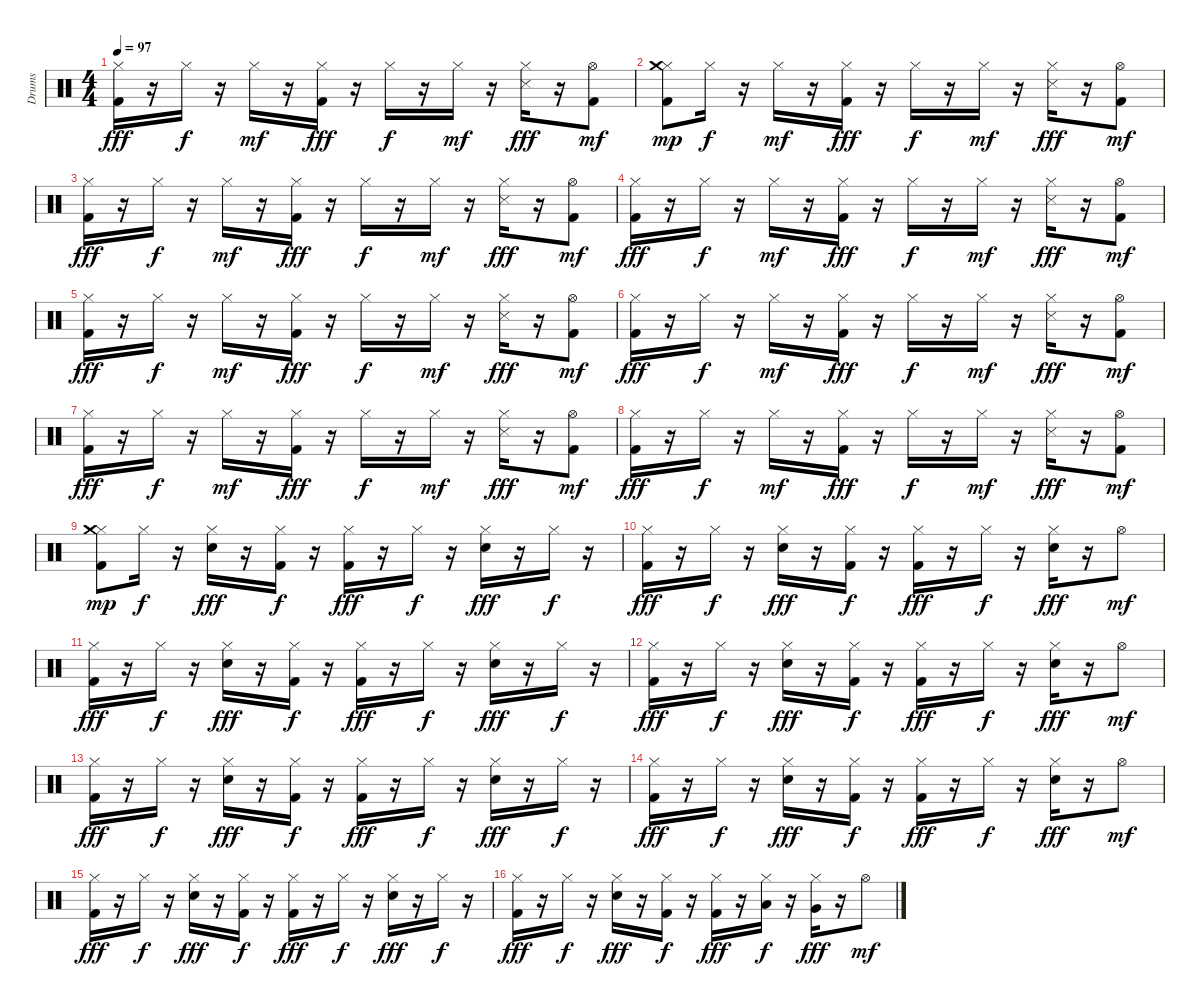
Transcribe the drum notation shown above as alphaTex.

\track ("Drums" "Drums") {instrument percussion}
\staff {score}
\articulation defaults
\ts (4 4)
\tempo 97
\clef neutral
\ks c
("Kick (hit) 2" "Hi-Hat (closed)").16{dy fff} r.16 "Hi-Hat (closed)".16{dy f} r.16 "Hi-Hat (closed)".16{dy mf} r.16 ("Kick (hit) 2" "Hi-Hat (closed)").16{dy fff} r.16 "Hi-Hat (closed)".16{dy f} r.16 "Hi-Hat (closed)".16{dy mf} r.16 ("Hi-Hat (closed)" "Snare (side stick) 3").16{dy fff} r.16 ("Kick (hit) 2" "Hi-Hat (open)").8{dy mf} |
("Kick (hit) 2" "Hi-Hat (closed)" "Crash medium (hit)").8{dy mp} "Hi-Hat (closed)".16{dy f} r.16 "Hi-Hat (closed)".16{dy mf} r.16 ("Kick (hit) 2" "Hi-Hat (closed)").16{dy fff} r.16 "Hi-Hat (closed)".16{dy f} r.16 "Hi-Hat (closed)".16{dy mf} r.16 ("Hi-Hat (closed)" "Snare (side stick) 3").16{dy fff} r.16 ("Kick (hit) 2" "Hi-Hat (open)").8{dy mf} |
("Kick (hit) 2" "Hi-Hat (closed)").16{dy fff} r.16 "Hi-Hat (closed)".16{dy f} r.16 "Hi-Hat (closed)".16{dy mf} r.16 ("Kick (hit) 2" "Hi-Hat (closed)").16{dy fff} r.16 "Hi-Hat (closed)".16{dy f} r.16 "Hi-Hat (closed)".16{dy mf} r.16 ("Hi-Hat (closed)" "Snare (side stick) 3").16{dy fff} r.16 ("Kick (hit) 2" "Hi-Hat (open)").8{dy mf} |
("Kick (hit) 2" "Hi-Hat (closed)").16{dy fff} r.16 "Hi-Hat (closed)".16{dy f} r.16 "Hi-Hat (closed)".16{dy mf} r.16 ("Kick (hit) 2" "Hi-Hat (closed)").16{dy fff} r.16 "Hi-Hat (closed)".16{dy f} r.16 "Hi-Hat (closed)".16{dy mf} r.16 ("Hi-Hat (closed)" "Snare (side stick) 3").16{dy fff} r.16 ("Kick (hit) 2" "Hi-Hat (open)").8{dy mf} |
("Kick (hit) 2" "Hi-Hat (closed)").16{dy fff} r.16 "Hi-Hat (closed)".16{dy f} r.16 "Hi-Hat (closed)".16{dy mf} r.16 ("Kick (hit) 2" "Hi-Hat (closed)").16{dy fff} r.16 "Hi-Hat (closed)".16{dy f} r.16 "Hi-Hat (closed)".16{dy mf} r.16 ("Hi-Hat (closed)" "Snare (side stick) 3").16{dy fff} r.16 ("Kick (hit) 2" "Hi-Hat (open)").8{dy mf} |
("Kick (hit) 2" "Hi-Hat (closed)").16{dy fff} r.16 "Hi-Hat (closed)".16{dy f} r.16 "Hi-Hat (closed)".16{dy mf} r.16 ("Kick (hit) 2" "Hi-Hat (closed)").16{dy fff} r.16 "Hi-Hat (closed)".16{dy f} r.16 "Hi-Hat (closed)".16{dy mf} r.16 ("Hi-Hat (closed)" "Snare (side stick) 3").16{dy fff} r.16 ("Kick (hit) 2" "Hi-Hat (open)").8{dy mf} |
("Kick (hit) 2" "Hi-Hat (closed)").16{dy fff} r.16 "Hi-Hat (closed)".16{dy f} r.16 "Hi-Hat (closed)".16{dy mf} r.16 ("Kick (hit) 2" "Hi-Hat (closed)").16{dy fff} r.16 "Hi-Hat (closed)".16{dy f} r.16 "Hi-Hat (closed)".16{dy mf} r.16 ("Hi-Hat (closed)" "Snare (side stick) 3").16{dy fff} r.16 ("Kick (hit) 2" "Hi-Hat (open)").8{dy mf} |
("Kick (hit) 2" "Hi-Hat (closed)").16{dy fff} r.16 "Hi-Hat (closed)".16{dy f} r.16 "Hi-Hat (closed)".16{dy mf} r.16 ("Kick (hit) 2" "Hi-Hat (closed)").16{dy fff} r.16 "Hi-Hat (closed)".16{dy f} r.16 "Hi-Hat (closed)".16{dy mf} r.16 ("Hi-Hat (closed)" "Snare (side stick) 3").16{dy fff} r.16 ("Kick (hit) 2" "Hi-Hat (open)").8{dy mf} |
("Kick (hit) 2" "Hi-Hat (closed)" "Crash medium (hit)").8{dy mp} "Hi-Hat (closed)".16{dy f} r.16 ("Electric Snare (hit)" "Hi-Hat (closed)").16{dy fff} r.16 ("Kick (hit) 2" "Hi-Hat (closed)").16{dy f} r.16 ("Kick (hit) 2" "Hi-Hat (closed)").16{dy fff} r.16 "Hi-Hat (closed)".16{dy f} r.16 ("Electric Snare (hit)" "Hi-Hat (closed)").16{dy fff} r.16 "Hi-Hat (closed)".16{dy f} r.16 |
("Kick (hit) 2" "Hi-Hat (closed)").16{dy fff} r.16 "Hi-Hat (closed)".16{dy f} r.16 ("Electric Snare (hit)" "Hi-Hat (closed)").16{dy fff} r.16 ("Kick (hit) 2" "Hi-Hat (closed)").16{dy f} r.16 ("Kick (hit) 2" "Hi-Hat (closed)").16{dy fff} r.16 "Hi-Hat (closed)".16{dy f} r.16 ("Electric Snare (hit)" "Hi-Hat (closed)").16{dy fff} r.16 "Hi-Hat (open)".8{dy mf} |
("Kick (hit) 2" "Hi-Hat (closed)").16{dy fff} r.16 "Hi-Hat (closed)".16{dy f} r.16 ("Electric Snare (hit)" "Hi-Hat (closed)").16{dy fff} r.16 ("Kick (hit) 2" "Hi-Hat (closed)").16{dy f} r.16 ("Kick (hit) 2" "Hi-Hat (closed)").16{dy fff} r.16 "Hi-Hat (closed)".16{dy f} r.16 ("Electric Snare (hit)" "Hi-Hat (closed)").16{dy fff} r.16 "Hi-Hat (closed)".16{dy f} r.16 |
("Kick (hit) 2" "Hi-Hat (closed)").16{dy fff} r.16 "Hi-Hat (closed)".16{dy f} r.16 ("Electric Snare (hit)" "Hi-Hat (closed)").16{dy fff} r.16 ("Kick (hit) 2" "Hi-Hat (closed)").16{dy f} r.16 ("Kick (hit) 2" "Hi-Hat (closed)").16{dy fff} r.16 "Hi-Hat (closed)".16{dy f} r.16 ("Electric Snare (hit)" "Hi-Hat (closed)").16{dy fff} r.16 "Hi-Hat (open)".8{dy mf} |
("Kick (hit) 2" "Hi-Hat (closed)").16{dy fff} r.16 "Hi-Hat (closed)".16{dy f} r.16 ("Electric Snare (hit)" "Hi-Hat (closed)").16{dy fff} r.16 ("Kick (hit) 2" "Hi-Hat (closed)").16{dy f} r.16 ("Kick (hit) 2" "Hi-Hat (closed)").16{dy fff} r.16 "Hi-Hat (closed)".16{dy f} r.16 ("Electric Snare (hit)" "Hi-Hat (closed)").16{dy fff} r.16 "Hi-Hat (closed)".16{dy f} r.16 |
("Kick (hit) 2" "Hi-Hat (closed)").16{dy fff} r.16 "Hi-Hat (closed)".16{dy f} r.16 ("Electric Snare (hit)" "Hi-Hat (closed)").16{dy fff} r.16 ("Kick (hit) 2" "Hi-Hat (closed)").16{dy f} r.16 ("Kick (hit) 2" "Hi-Hat (closed)").16{dy fff} r.16 "Hi-Hat (closed)".16{dy f} r.16 ("Electric Snare (hit)" "Hi-Hat (closed)").16{dy fff} r.16 "Hi-Hat (open)".8{dy mf} |
("Kick (hit) 2" "Hi-Hat (closed)").16{dy fff} r.16 "Hi-Hat (closed)".16{dy f} r.16 ("Electric Snare (hit)" "Hi-Hat (closed)").16{dy fff} r.16 ("Kick (hit) 2" "Hi-Hat (closed)").16{dy f} r.16 ("Kick (hit) 2" "Hi-Hat (closed)").16{dy fff} r.16 "Hi-Hat (closed)".16{dy f} r.16 ("Electric Snare (hit)" "Hi-Hat (closed)").16{dy fff} r.16 "Hi-Hat (closed)".16{dy f} r.16 |
("Kick (hit) 2" "Hi-Hat (closed)").16{dy fff} r.16 "Hi-Hat (closed)".16{dy f} r.16 ("Electric Snare (hit)" "Hi-Hat (closed)").16{dy fff} r.16 ("Kick (hit) 2" "Hi-Hat (closed)").16{dy f} r.16 ("Kick (hit) 2" "Hi-Hat (closed)").16{dy fff} r.16 ("Hi-Hat (closed)" "Low Tom (hit)").16{dy f} r.16 ("Hi-Hat (closed)" "Very Low Tom (hit)").16{dy fff} r.16 "Hi-Hat (open)".8{dy mf}
